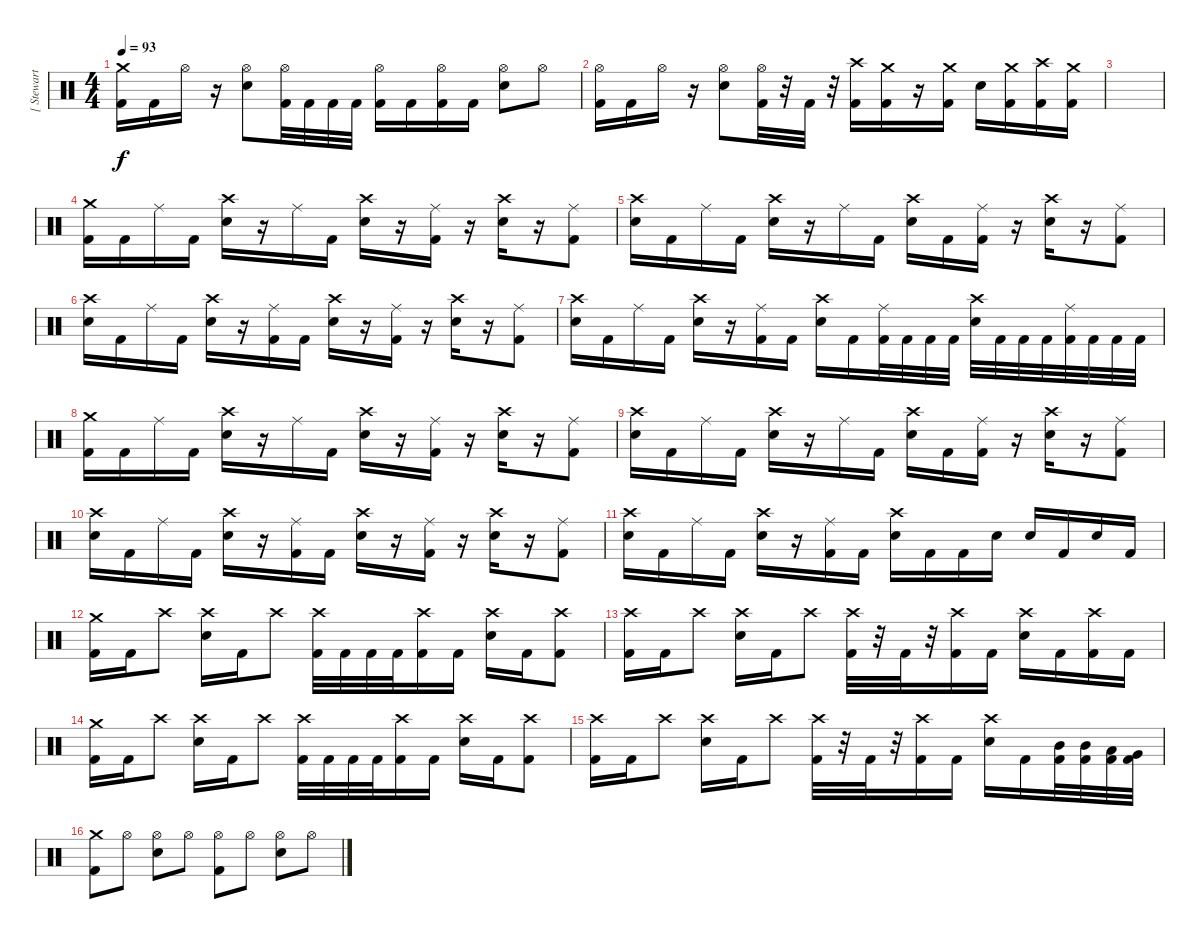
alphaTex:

\track ("[ Stewart ]" "[ Stewart ") {instrument percussion}
\staff {score}
\articulation defaults
\ts (4 4)
\tempo 93
\clef neutral
\ks c
("Kick (hit) 2" "Crash medium (hit)").16{dy f} "Kick (hit) 2".16 "Hi-Hat (open)".16 r.16 ("Electric Snare (hit)" "Hi-Hat (open)").8 ("Kick (hit) 2" "Hi-Hat (open)").32 "Kick (hit) 2".32 "Kick (hit) 2".32 "Kick (hit) 2".32 ("Kick (hit) 2" "Hi-Hat (open)").16 "Kick (hit) 2".16 ("Kick (hit) 2" "Hi-Hat (open)").16 "Kick (hit) 2".16 ("Electric Snare (hit)" "Hi-Hat (open)").8 "Hi-Hat (open)".8 |
("Kick (hit) 2" "Hi-Hat (open)").16 "Kick (hit) 2".16 "Hi-Hat (open)".16 r.16 ("Electric Snare (hit)" "Hi-Hat (open)").8 ("Kick (hit) 2" "Hi-Hat (open)").32 r.32 "Kick (hit) 2".32 r.32 ("Kick (hit) 2" "Crash high (hit)").16 ("Kick (hit) 2" "Crash medium (hit)").16 r.16 ("Kick (hit) 2" "Crash medium (hit)").16 "Electric Snare (hit)".16 ("Kick (hit) 2" "Crash medium (hit)").16 ("Kick (hit) 2" "Crash high (hit)").16 ("Kick (hit) 2" "Crash medium (hit)").16 |
|
("Kick (hit) 2" "Crash medium (hit)").16 "Kick (hit) 2".16 "Ride (middle)".16 "Kick (hit) 2".16 ("Electric Snare (hit)" "Crash high (hit)").16 r.16 "Ride (middle)".16 "Kick (hit) 2".16 ("Electric Snare (hit)" "Crash high (hit)").16 r.16 ("Kick (hit) 2" "Ride (middle)").16 r.16 ("Electric Snare (hit)" "Crash high (hit)").16 r.16 ("Kick (hit) 2" "Ride (middle)").8 |
("Electric Snare (hit)" "Crash high (hit)").16 "Kick (hit) 2".16 "Ride (middle)".16 "Kick (hit) 2".16 ("Electric Snare (hit)" "Crash high (hit)").16 r.16 "Ride (middle)".16 "Kick (hit) 2".16 ("Electric Snare (hit)" "Crash high (hit)").16 "Kick (hit) 2".16 ("Kick (hit) 2" "Ride (middle)").16 r.16 ("Electric Snare (hit)" "Crash high (hit)").16 r.16 ("Kick (hit) 2" "Ride (middle)").8 |
("Electric Snare (hit)" "Crash high (hit)").16 "Kick (hit) 2".16 "Ride (middle)".16 "Kick (hit) 2".16 ("Electric Snare (hit)" "Crash high (hit)").16 r.16 ("Kick (hit) 2" "Ride (middle)").16 "Kick (hit) 2".16 ("Electric Snare (hit)" "Crash high (hit)").16 r.16 ("Kick (hit) 2" "Ride (middle)").16 r.16 ("Electric Snare (hit)" "Crash high (hit)").16 r.16 ("Kick (hit) 2" "Ride (middle)").8 |
("Electric Snare (hit)" "Crash high (hit)").16 "Kick (hit) 2".16 "Ride (middle)".16 "Kick (hit) 2".16 ("Electric Snare (hit)" "Crash high (hit)").16 r.16 ("Kick (hit) 2" "Ride (middle)").16 "Kick (hit) 2".16 ("Electric Snare (hit)" "Crash high (hit)").16 "Kick (hit) 2".16 ("Kick (hit) 2" "Ride (middle)").32 "Kick (hit) 2".32 "Kick (hit) 2".32 "Kick (hit) 2".32 ("Electric Snare (hit)" "Crash high (hit)").32 "Kick (hit) 2".32 "Kick (hit) 2".32 "Kick (hit) 2".32 ("Kick (hit) 2" "Ride (middle)").32 "Kick (hit) 2".32 "Kick (hit) 2".32 "Kick (hit) 2".32 |
("Kick (hit) 2" "Crash medium (hit)").16 "Kick (hit) 2".16 "Ride (middle)".16 "Kick (hit) 2".16 ("Electric Snare (hit)" "Crash high (hit)").16 r.16 "Ride (middle)".16 "Kick (hit) 2".16 ("Electric Snare (hit)" "Crash high (hit)").16 r.16 ("Kick (hit) 2" "Ride (middle)").16 r.16 ("Electric Snare (hit)" "Crash high (hit)").16 r.16 ("Kick (hit) 2" "Ride (middle)").8 |
("Electric Snare (hit)" "Crash high (hit)").16 "Kick (hit) 2".16 "Ride (middle)".16 "Kick (hit) 2".16 ("Electric Snare (hit)" "Crash high (hit)").16 r.16 "Ride (middle)".16 "Kick (hit) 2".16 ("Electric Snare (hit)" "Crash high (hit)").16 "Kick (hit) 2".16 ("Kick (hit) 2" "Ride (middle)").16 r.16 ("Electric Snare (hit)" "Crash high (hit)").16 r.16 ("Kick (hit) 2" "Ride (middle)").8 |
("Electric Snare (hit)" "Crash high (hit)").16 "Kick (hit) 2".16 "Ride (middle)".16 "Kick (hit) 2".16 ("Electric Snare (hit)" "Crash high (hit)").16 r.16 ("Kick (hit) 2" "Ride (middle)").16 "Kick (hit) 2".16 ("Electric Snare (hit)" "Crash high (hit)").16 r.16 ("Kick (hit) 2" "Ride (middle)").16 r.16 ("Electric Snare (hit)" "Crash high (hit)").16 r.16 ("Kick (hit) 2" "Ride (middle)").8 |
("Electric Snare (hit)" "Crash high (hit)").16 "Kick (hit) 2".16 "Ride (middle)".16 "Kick (hit) 2".16 ("Electric Snare (hit)" "Crash high (hit)").16 r.16 ("Kick (hit) 2" "Ride (middle)").16 "Kick (hit) 2".16 ("Electric Snare (hit)" "Crash high (hit)").16 "Kick (hit) 2".16 "Kick (hit) 2".16 "Electric Snare (hit)".16 "Electric Snare (hit)".16 "Kick (hit) 2".16 "Electric Snare (hit)".16 "Kick (hit) 2".16 |
("Kick (hit) 2" "Crash medium (hit)").16 "Kick (hit) 2".16 "Crash high (hit)".8 ("Electric Snare (hit)" "Crash high (hit)").16 "Kick (hit) 2".16 "Crash high (hit)".8 ("Kick (hit) 2" "Crash high (hit)").32 "Kick (hit) 2".32 "Kick (hit) 2".32 "Kick (hit) 2".32 ("Kick (hit) 2" "Crash high (hit)").16 "Kick (hit) 2".16 ("Electric Snare (hit)" "Crash high (hit)").16 "Kick (hit) 2".16 ("Kick (hit) 2" "Crash high (hit)").8 |
("Kick (hit) 2" "Crash high (hit)").16 "Kick (hit) 2".16 "Crash high (hit)".8 ("Electric Snare (hit)" "Crash high (hit)").16 "Kick (hit) 2".16 "Crash high (hit)".8 ("Kick (hit) 2" "Crash high (hit)").32 r.32 "Kick (hit) 2".32 r.32 ("Kick (hit) 2" "Crash high (hit)").16 "Kick (hit) 2".16 ("Electric Snare (hit)" "Crash high (hit)").16 "Kick (hit) 2".16 ("Kick (hit) 2" "Crash high (hit)").16 "Kick (hit) 2".16 |
("Kick (hit) 2" "Crash medium (hit)").16 "Kick (hit) 2".16 "Crash high (hit)".8 ("Electric Snare (hit)" "Crash high (hit)").16 "Kick (hit) 2".16 "Crash high (hit)".8 ("Kick (hit) 2" "Crash high (hit)").32 "Kick (hit) 2".32 "Kick (hit) 2".32 "Kick (hit) 2".32 ("Kick (hit) 2" "Crash high (hit)").16 "Kick (hit) 2".16 ("Electric Snare (hit)" "Crash high (hit)").16 "Kick (hit) 2".16 ("Kick (hit) 2" "Crash high (hit)").8 |
("Kick (hit) 2" "Crash high (hit)").16 "Kick (hit) 2".16 "Crash high (hit)".8 ("Electric Snare (hit)" "Crash high (hit)").16 "Kick (hit) 2".16 "Crash high (hit)".8 ("Kick (hit) 2" "Crash high (hit)").32 r.32 "Kick (hit) 2".32 r.32 ("Kick (hit) 2" "Crash high (hit)").16 "Kick (hit) 2".16 ("Electric Snare (hit)" "Crash high (hit)").16 "Kick (hit) 2".16 ("Mid Tom (hit)" "Kick (hit) 2").32 ("Mid Tom (hit)" "Kick (hit) 2").32 ("Low Tom (hit)" "Kick (hit) 2").32 ("Very Low Tom (hit)" "Kick (hit) 2").32 |
("Kick (hit) 2" "Crash medium (hit)").8 "Hi-Hat (open)".8 ("Electric Snare (hit)" "Hi-Hat (open)").8 "Hi-Hat (open)".8 ("Kick (hit) 2" "Hi-Hat (open)").8 "Hi-Hat (open)".8 ("Electric Snare (hit)" "Hi-Hat (open)").8 "Hi-Hat (open)".8
